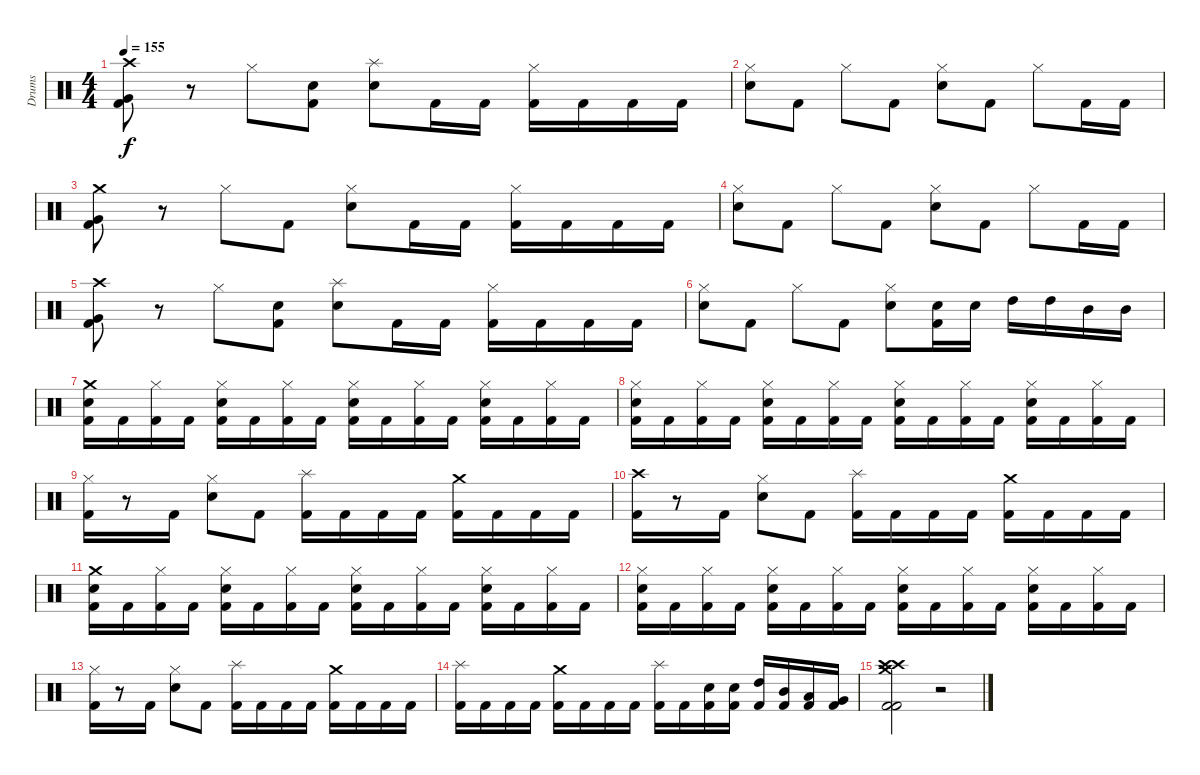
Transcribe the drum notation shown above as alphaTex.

\track ("Drums" "Drums") {instrument percussion}
\staff {score}
\articulation defaults
\ts (4 4)
\tempo 155
\clef neutral
\ks c
("Kick (hit) 2" "Very Low Tom (hit)" "Crash high (hit)").8{dy f} r.8 "Hi-Hat (closed)".8 ("Kick (hit) 2" "Snare (hit) 2").8 ("Snare (hit) 2" "Splash (hit)").8 "Kick (hit) 2".16 "Kick (hit) 2".16 ("Kick (hit) 2" "Hi-Hat (closed)").16 "Kick (hit) 2".16 "Kick (hit) 2".16 "Kick (hit) 2".16 |
("Snare (hit) 2" "Hi-Hat (closed)").8 "Kick (hit) 2".8 "Hi-Hat (closed)".8 "Kick (hit) 2".8 ("Snare (hit) 2" "Hi-Hat (closed)").8 "Kick (hit) 2".8 "Hi-Hat (closed)".8 "Kick (hit) 2".16 "Kick (hit) 2".16 |
("Kick (hit) 2" "Very Low Tom (hit)" "Crash medium (hit)").8 r.8 "Hi-Hat (closed)".8 "Kick (hit) 2".8 ("Snare (hit) 2" "Hi-Hat (closed)").8 "Kick (hit) 2".16 "Kick (hit) 2".16 ("Kick (hit) 2" "Hi-Hat (closed)").16 "Kick (hit) 2".16 "Kick (hit) 2".16 "Kick (hit) 2".16 |
("Snare (hit) 2" "Hi-Hat (closed)").8 "Kick (hit) 2".8 "Hi-Hat (closed)".8 "Kick (hit) 2".8 ("Snare (hit) 2" "Hi-Hat (closed)").8 "Kick (hit) 2".8 "Hi-Hat (closed)".8 "Kick (hit) 2".16 "Kick (hit) 2".16 |
("Kick (hit) 2" "Very Low Tom (hit)" "Crash high (hit)").8 r.8 "Hi-Hat (closed)".8 ("Kick (hit) 2" "Snare (hit) 2").8 ("Snare (hit) 2" "Splash (hit)").8 "Kick (hit) 2".16 "Kick (hit) 2".16 ("Kick (hit) 2" "Hi-Hat (closed)").16 "Kick (hit) 2".16 "Kick (hit) 2".16 "Kick (hit) 2".16 |
("Snare (hit) 2" "Hi-Hat (closed)").8 "Kick (hit) 2".8 "Hi-Hat (closed)".8 "Kick (hit) 2".8 ("Snare (hit) 2" "Hi-Hat (closed)").8 ("Kick (hit) 2" "Snare (hit) 2").16 "Snare (hit) 2".16 "High Tom (hit)".16 "High Tom (hit)".16 "Mid Tom (hit)".16 "Mid Tom (hit)".16 |
("Kick (hit) 2" "Snare (hit) 2" "Crash medium (hit)").16 "Kick (hit) 2".16 ("Kick (hit) 2" "Hi-Hat (closed)").16 "Kick (hit) 2".16 ("Kick (hit) 2" "Snare (hit) 2" "Hi-Hat (closed)").16 "Kick (hit) 2".16 ("Kick (hit) 2" "Hi-Hat (closed)").16 "Kick (hit) 2".16 ("Kick (hit) 2" "Snare (hit) 2" "Hi-Hat (closed)").16 "Kick (hit) 2".16 ("Kick (hit) 2" "Hi-Hat (closed)").16 "Kick (hit) 2".16 ("Kick (hit) 2" "Snare (hit) 2" "Hi-Hat (closed)").16 "Kick (hit) 2".16 ("Kick (hit) 2" "Hi-Hat (closed)").16 "Kick (hit) 2".16 |
("Kick (hit) 2" "Snare (hit) 2" "Hi-Hat (closed)").16 "Kick (hit) 2".16 ("Kick (hit) 2" "Hi-Hat (closed)").16 "Kick (hit) 2".16 ("Kick (hit) 2" "Snare (hit) 2" "Hi-Hat (closed)").16 "Kick (hit) 2".16 ("Kick (hit) 2" "Hi-Hat (closed)").16 "Kick (hit) 2".16 ("Kick (hit) 2" "Snare (hit) 2" "Hi-Hat (closed)").16 "Kick (hit) 2".16 ("Kick (hit) 2" "Hi-Hat (closed)").16 "Kick (hit) 2".16 ("Kick (hit) 2" "Snare (hit) 2" "Hi-Hat (closed)").16 "Kick (hit) 2".16 ("Kick (hit) 2" "Hi-Hat (closed)").16 "Kick (hit) 2".16 |
("Kick (hit) 2" "Hi-Hat (closed)").16 r.8 "Kick (hit) 2".16 ("Snare (hit) 2" "Hi-Hat (closed)").8 "Kick (hit) 2".8 ("Kick (hit) 2" "Splash (hit)").16 "Kick (hit) 2".16 "Kick (hit) 2".16 "Kick (hit) 2".16 ("Kick (hit) 2" "Crash medium (hit)").16 "Kick (hit) 2".16 "Kick (hit) 2".16 "Kick (hit) 2".16 |
("Kick (hit) 2" "Crash high (hit)").16 r.8 "Kick (hit) 2".16 ("Snare (hit) 2" "Hi-Hat (closed)").8 "Kick (hit) 2".8 ("Kick (hit) 2" "Splash (hit)").16 "Kick (hit) 2".16 "Kick (hit) 2".16 "Kick (hit) 2".16 ("Kick (hit) 2" "Crash medium (hit)").16 "Kick (hit) 2".16 "Kick (hit) 2".16 "Kick (hit) 2".16 |
("Kick (hit) 2" "Snare (hit) 2" "Crash medium (hit)").16 "Kick (hit) 2".16 ("Kick (hit) 2" "Hi-Hat (closed)").16 "Kick (hit) 2".16 ("Kick (hit) 2" "Snare (hit) 2" "Hi-Hat (closed)").16 "Kick (hit) 2".16 ("Kick (hit) 2" "Hi-Hat (closed)").16 "Kick (hit) 2".16 ("Kick (hit) 2" "Snare (hit) 2" "Hi-Hat (closed)").16 "Kick (hit) 2".16 ("Kick (hit) 2" "Hi-Hat (closed)").16 "Kick (hit) 2".16 ("Kick (hit) 2" "Snare (hit) 2" "Hi-Hat (closed)").16 "Kick (hit) 2".16 ("Kick (hit) 2" "Hi-Hat (closed)").16 "Kick (hit) 2".16 |
("Kick (hit) 2" "Snare (hit) 2" "Hi-Hat (closed)").16 "Kick (hit) 2".16 ("Kick (hit) 2" "Hi-Hat (closed)").16 "Kick (hit) 2".16 ("Kick (hit) 2" "Snare (hit) 2" "Hi-Hat (closed)").16 "Kick (hit) 2".16 ("Kick (hit) 2" "Hi-Hat (closed)").16 "Kick (hit) 2".16 ("Kick (hit) 2" "Snare (hit) 2" "Hi-Hat (closed)").16 "Kick (hit) 2".16 ("Kick (hit) 2" "Hi-Hat (closed)").16 "Kick (hit) 2".16 ("Kick (hit) 2" "Snare (hit) 2" "Hi-Hat (closed)").16 "Kick (hit) 2".16 ("Kick (hit) 2" "Hi-Hat (closed)").16 "Kick (hit) 2".16 |
("Kick (hit) 2" "Hi-Hat (closed)").16 r.8 "Kick (hit) 2".16 ("Snare (hit) 2" "Hi-Hat (closed)").8 "Kick (hit) 2".8 ("Kick (hit) 2" "Splash (hit)").16 "Kick (hit) 2".16 "Kick (hit) 2".16 "Kick (hit) 2".16 ("Kick (hit) 2" "Crash medium (hit)").16 "Kick (hit) 2".16 "Kick (hit) 2".16 "Kick (hit) 2".16 |
("Kick (hit) 2" "Splash (hit)").16 "Kick (hit) 2".16 "Kick (hit) 2".16 "Kick (hit) 2".16 ("Kick (hit) 2" "Crash medium (hit)").16 "Kick (hit) 2".16 "Kick (hit) 2".16 "Kick (hit) 2".16 ("Kick (hit) 2" "Splash (hit)").16 "Kick (hit) 2".16 ("Kick (hit) 2" "Snare (hit) 2").16 ("Kick (hit) 2" "Snare (hit) 2").16 ("Kick (hit) 2" "High Tom (hit)").16 ("Kick (hit) 2" "Mid Tom (hit)").16 ("Kick (hit) 2" "Low Tom (hit)").16 ("Kick (hit) 2" "Very Low Tom (hit)").16 |
("Kick (hit) 2" "Crash medium (hit)" "Crash high (hit)" "Crash high (hit)" "Kick (hit) 2").2 r.2
